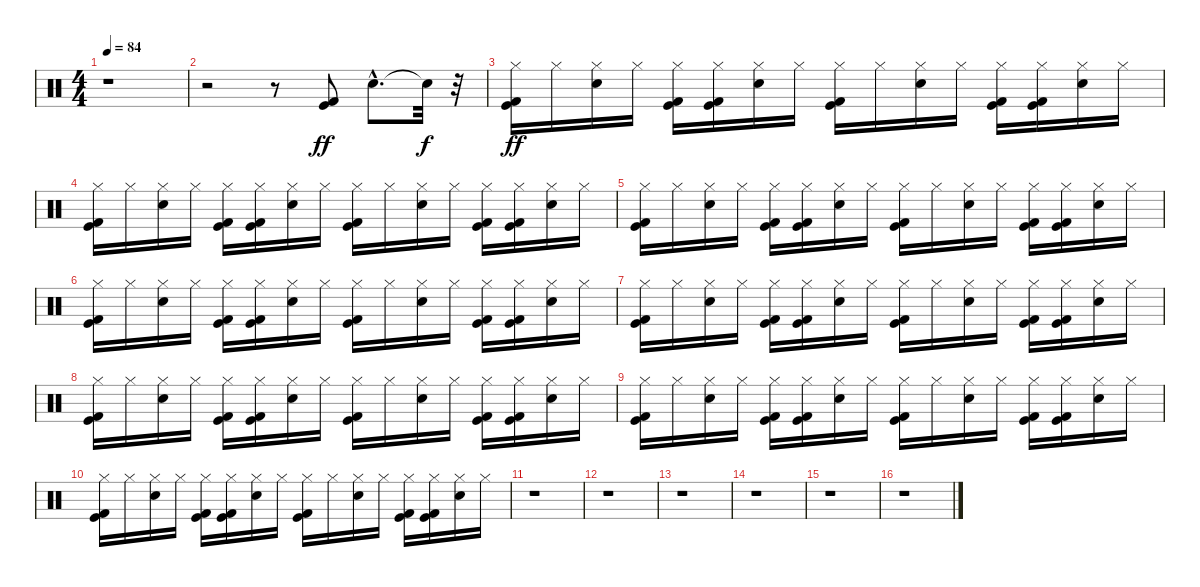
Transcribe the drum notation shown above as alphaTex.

\track "" {instrument percussion}
\staff {score}
\articulation defaults
\ts (4 4)
\tempo 84
\clef neutral
\ks c
r.1{dy ff} |
r.2 r.8 ("Kick (hit)" "Kick (hit) 2").8 "Snare (hit) 2"{hac}.8{d} "Snare (hit)"{t}.32{dy f} r.32 |
("Kick (hit)" "Kick (hit) 2" "Hi-Hat (closed)").16{dy ff} "Hi-Hat (closed)".16 ("Snare (hit) 2" "Hi-Hat (closed)").16 "Hi-Hat (closed)".16 ("Kick (hit)" "Kick (hit) 2" "Hi-Hat (closed)").16 ("Kick (hit)" "Kick (hit) 2" "Hi-Hat (closed)").16 ("Snare (hit) 2" "Hi-Hat (closed)").16 "Hi-Hat (closed)".16 ("Kick (hit)" "Kick (hit) 2" "Hi-Hat (closed)").16 "Hi-Hat (closed)".16 ("Snare (hit) 2" "Hi-Hat (closed)").16 "Hi-Hat (closed)".16 ("Kick (hit)" "Kick (hit) 2" "Hi-Hat (closed)").16 ("Kick (hit)" "Kick (hit) 2" "Hi-Hat (closed)").16 ("Snare (hit) 2" "Hi-Hat (closed)").16 "Hi-Hat (closed)".16 |
("Kick (hit)" "Kick (hit) 2" "Hi-Hat (closed)").16 "Hi-Hat (closed)".16 ("Snare (hit) 2" "Hi-Hat (closed)").16 "Hi-Hat (closed)".16 ("Kick (hit)" "Kick (hit) 2" "Hi-Hat (closed)").16 ("Kick (hit)" "Kick (hit) 2" "Hi-Hat (closed)").16 ("Snare (hit) 2" "Hi-Hat (closed)").16 "Hi-Hat (closed)".16 ("Kick (hit)" "Kick (hit) 2" "Hi-Hat (closed)").16 "Hi-Hat (closed)".16 ("Snare (hit) 2" "Hi-Hat (closed)").16 "Hi-Hat (closed)".16 ("Kick (hit)" "Kick (hit) 2" "Hi-Hat (closed)").16 ("Kick (hit)" "Kick (hit) 2" "Hi-Hat (closed)").16 ("Snare (hit) 2" "Hi-Hat (closed)").16 "Hi-Hat (closed)".16 |
("Kick (hit)" "Kick (hit) 2" "Hi-Hat (closed)").16 "Hi-Hat (closed)".16 ("Snare (hit) 2" "Hi-Hat (closed)").16 "Hi-Hat (closed)".16 ("Kick (hit)" "Kick (hit) 2" "Hi-Hat (closed)").16 ("Kick (hit)" "Kick (hit) 2" "Hi-Hat (closed)").16 ("Snare (hit) 2" "Hi-Hat (closed)").16 "Hi-Hat (closed)".16 ("Kick (hit)" "Kick (hit) 2" "Hi-Hat (closed)").16 "Hi-Hat (closed)".16 ("Snare (hit) 2" "Hi-Hat (closed)").16 "Hi-Hat (closed)".16 ("Kick (hit)" "Kick (hit) 2" "Hi-Hat (closed)").16 ("Kick (hit)" "Kick (hit) 2" "Hi-Hat (closed)").16 ("Snare (hit) 2" "Hi-Hat (closed)").16 "Hi-Hat (closed)".16 |
("Kick (hit)" "Kick (hit) 2" "Hi-Hat (closed)").16 "Hi-Hat (closed)".16 ("Snare (hit) 2" "Hi-Hat (closed)").16 "Hi-Hat (closed)".16 ("Kick (hit)" "Kick (hit) 2" "Hi-Hat (closed)").16 ("Kick (hit)" "Kick (hit) 2" "Hi-Hat (closed)").16 ("Snare (hit) 2" "Hi-Hat (closed)").16 "Hi-Hat (closed)".16 ("Kick (hit)" "Kick (hit) 2" "Hi-Hat (closed)").16 "Hi-Hat (closed)".16 ("Snare (hit) 2" "Hi-Hat (closed)").16 "Hi-Hat (closed)".16 ("Kick (hit)" "Kick (hit) 2" "Hi-Hat (closed)").16 ("Kick (hit)" "Kick (hit) 2" "Hi-Hat (closed)").16 ("Snare (hit) 2" "Hi-Hat (closed)").16 "Hi-Hat (closed)".16 |
("Kick (hit)" "Kick (hit) 2" "Hi-Hat (closed)").16 "Hi-Hat (closed)".16 ("Snare (hit) 2" "Hi-Hat (closed)").16 "Hi-Hat (closed)".16 ("Kick (hit)" "Kick (hit) 2" "Hi-Hat (closed)").16 ("Kick (hit)" "Kick (hit) 2" "Hi-Hat (closed)").16 ("Snare (hit) 2" "Hi-Hat (closed)").16 "Hi-Hat (closed)".16 ("Kick (hit)" "Kick (hit) 2" "Hi-Hat (closed)").16 "Hi-Hat (closed)".16 ("Snare (hit) 2" "Hi-Hat (closed)").16 "Hi-Hat (closed)".16 ("Kick (hit)" "Kick (hit) 2" "Hi-Hat (closed)").16 ("Kick (hit)" "Kick (hit) 2" "Hi-Hat (closed)").16 ("Snare (hit) 2" "Hi-Hat (closed)").16 "Hi-Hat (closed)".16 |
("Kick (hit)" "Kick (hit) 2" "Hi-Hat (closed)").16 "Hi-Hat (closed)".16 ("Snare (hit) 2" "Hi-Hat (closed)").16 "Hi-Hat (closed)".16 ("Kick (hit)" "Kick (hit) 2" "Hi-Hat (closed)").16 ("Kick (hit)" "Kick (hit) 2" "Hi-Hat (closed)").16 ("Snare (hit) 2" "Hi-Hat (closed)").16 "Hi-Hat (closed)".16 ("Kick (hit)" "Kick (hit) 2" "Hi-Hat (closed)").16 "Hi-Hat (closed)".16 ("Snare (hit) 2" "Hi-Hat (closed)").16 "Hi-Hat (closed)".16 ("Kick (hit)" "Kick (hit) 2" "Hi-Hat (closed)").16 ("Kick (hit)" "Kick (hit) 2" "Hi-Hat (closed)").16 ("Snare (hit) 2" "Hi-Hat (closed)").16 "Hi-Hat (closed)".16 |
("Kick (hit)" "Kick (hit) 2" "Hi-Hat (closed)").16 "Hi-Hat (closed)".16 ("Snare (hit) 2" "Hi-Hat (closed)").16 "Hi-Hat (closed)".16 ("Kick (hit)" "Kick (hit) 2" "Hi-Hat (closed)").16 ("Kick (hit)" "Kick (hit) 2" "Hi-Hat (closed)").16 ("Snare (hit) 2" "Hi-Hat (closed)").16 "Hi-Hat (closed)".16 ("Kick (hit)" "Kick (hit) 2" "Hi-Hat (closed)").16 "Hi-Hat (closed)".16 ("Snare (hit) 2" "Hi-Hat (closed)").16 "Hi-Hat (closed)".16 ("Kick (hit)" "Kick (hit) 2" "Hi-Hat (closed)").16 ("Kick (hit)" "Kick (hit) 2" "Hi-Hat (closed)").16 ("Snare (hit) 2" "Hi-Hat (closed)").16 "Hi-Hat (closed)".16 |
("Kick (hit)" "Kick (hit) 2" "Hi-Hat (closed)").16 "Hi-Hat (closed)".16 ("Snare (hit) 2" "Hi-Hat (closed)").16 "Hi-Hat (closed)".16 ("Kick (hit)" "Kick (hit) 2" "Hi-Hat (closed)").16 ("Kick (hit)" "Kick (hit) 2" "Hi-Hat (closed)").16 ("Snare (hit) 2" "Hi-Hat (closed)").16 "Hi-Hat (closed)".16 ("Kick (hit)" "Kick (hit) 2" "Hi-Hat (closed)").16 "Hi-Hat (closed)".16 ("Snare (hit) 2" "Hi-Hat (closed)").16 "Hi-Hat (closed)".16 ("Kick (hit)" "Kick (hit) 2" "Hi-Hat (closed)").16 ("Kick (hit)" "Kick (hit) 2" "Hi-Hat (closed)").16 ("Snare (hit) 2" "Hi-Hat (closed)").16 "Hi-Hat (closed)".16 |
r.1 |
r.1 |
r.1 |
r.1 |
r.1 |
r.1
